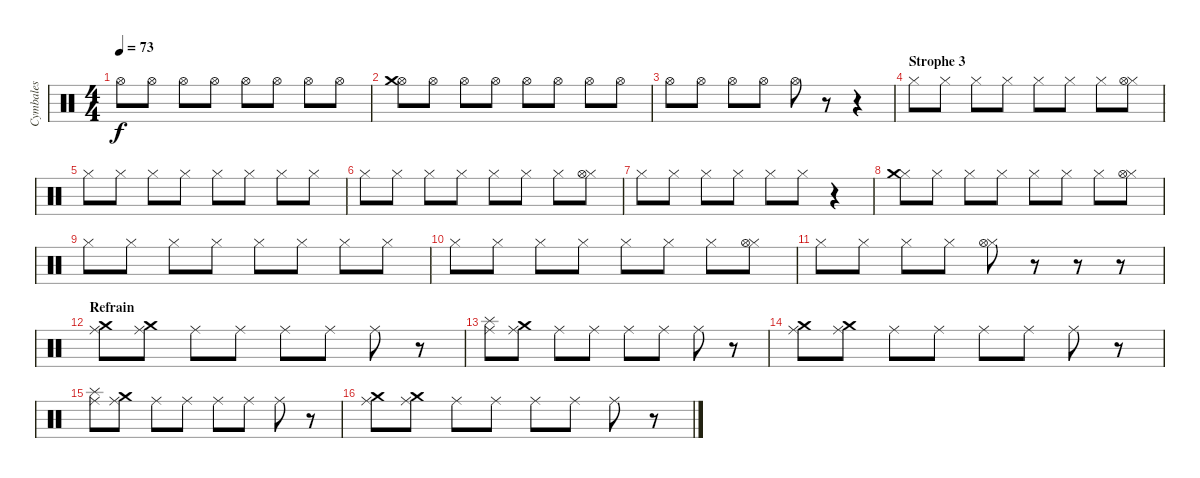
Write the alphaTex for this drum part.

\track ("Cymbales" "Cymbales") {instrument percussion}
\staff {score}
\articulation defaults
\ts (4 4)
\tempo 73
\clef neutral
\ks c "Hi-Hat (open)".8{dy f} "Hi-Hat (open)".8 "Hi-Hat (open)".8 "Hi-Hat (open)".8 "Hi-Hat (open)".8 "Hi-Hat (open)".8 "Hi-Hat (open)".8 "Hi-Hat (open)".8
|
("Hi-Hat (open)" "Crash medium (hit)").8 "Hi-Hat (open)".8 "Hi-Hat (open)".8 "Hi-Hat (open)".8 "Hi-Hat (open)".8 "Hi-Hat (open)".8 "Hi-Hat (open)".8 "Hi-Hat (open)".8 |
"Hi-Hat (open)".8 "Hi-Hat (open)".8 "Hi-Hat (open)".8 "Hi-Hat (open)".8 "Hi-Hat (open)".8 r.8 r.4 |
\section ("" "Strophe 3")
"Hi-Hat (closed)".8 "Hi-Hat (closed)".8 "Hi-Hat (closed)".8 "Hi-Hat (closed)".8 "Hi-Hat (closed)".8 "Hi-Hat (closed)".8 "Hi-Hat (closed)".8 ("Hi-Hat (closed)" "Hi-Hat (open)").8 |
"Hi-Hat (closed)".8 "Hi-Hat (closed)".8 "Hi-Hat (closed)".8 "Hi-Hat (closed)".8 "Hi-Hat (closed)".8 "Hi-Hat (closed)".8 "Hi-Hat (closed)".8 "Hi-Hat (closed)".8 |
"Hi-Hat (closed)".8 "Hi-Hat (closed)".8 "Hi-Hat (closed)".8 "Hi-Hat (closed)".8 "Hi-Hat (closed)".8 "Hi-Hat (closed)".8 "Hi-Hat (closed)".8 ("Hi-Hat (closed)" "Hi-Hat (open)").8 |
"Hi-Hat (closed)".8 "Hi-Hat (closed)".8 "Hi-Hat (closed)".8 "Hi-Hat (closed)".8 "Hi-Hat (closed)".8 "Hi-Hat (closed)".8 r.4 |
("Hi-Hat (closed)" "Crash medium (hit)").8 "Hi-Hat (closed)".8 "Hi-Hat (closed)".8 "Hi-Hat (closed)".8 "Hi-Hat (closed)".8 "Hi-Hat (closed)".8 "Hi-Hat (closed)".8 ("Hi-Hat (closed)" "Hi-Hat (open)").8 |
"Hi-Hat (closed)".8 "Hi-Hat (closed)".8 "Hi-Hat (closed)".8 "Hi-Hat (closed)".8 "Hi-Hat (closed)".8 "Hi-Hat (closed)".8 "Hi-Hat (closed)".8 "Hi-Hat (closed)".8 |
"Hi-Hat (closed)".8 "Hi-Hat (closed)".8 "Hi-Hat (closed)".8 "Hi-Hat (closed)".8 "Hi-Hat (closed)".8 "Hi-Hat (closed)".8 "Hi-Hat (closed)".8 ("Hi-Hat (closed)" "Hi-Hat (open)").8 |
"Hi-Hat (closed)".8 "Hi-Hat (closed)".8 "Hi-Hat (closed)".8 "Hi-Hat (closed)".8 ("Hi-Hat (closed)" "Hi-Hat (open)").8 r.8 r.8 r.8 |
\section ("" "Refrain")
("Ride (middle)" "Crash medium (hit)").8 ("Ride (middle)" "Crash medium (hit)").8 "Ride (middle)".8 "Ride (middle)".8 "Ride (middle)".8 "Ride (middle)".8 "Ride (middle)".8 r.8 |
("Ride (middle)" "Splash (hit)").8 ("Ride (middle)" "Crash medium (hit)").8 "Ride (middle)".8 "Ride (middle)".8 "Ride (middle)".8 "Ride (middle)".8 "Ride (middle)".8 r.8 |
("Ride (middle)" "Crash medium (hit)").8 ("Ride (middle)" "Crash medium (hit)").8 "Ride (middle)".8 "Ride (middle)".8 "Ride (middle)".8 "Ride (middle)".8 "Ride (middle)".8 r.8 |
("Ride (middle)" "Splash (hit)").8 ("Ride (middle)" "Crash medium (hit)").8 "Ride (middle)".8 "Ride (middle)".8 "Ride (middle)".8 "Ride (middle)".8 "Ride (middle)".8 r.8 |
("Ride (middle)" "Crash medium (hit)").8 ("Ride (middle)" "Crash medium (hit)").8 "Ride (middle)".8 "Ride (middle)".8 "Ride (middle)".8 "Ride (middle)".8 "Ride (middle)".8 r.8
